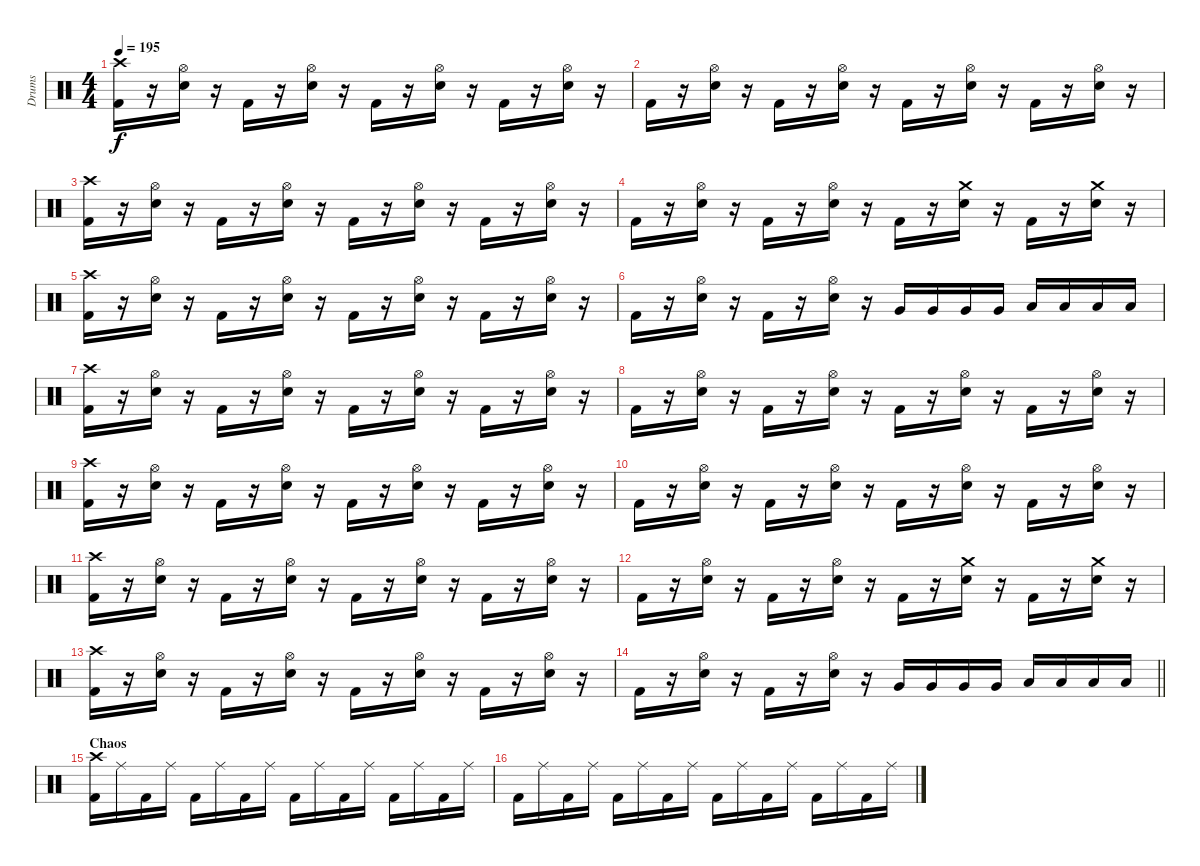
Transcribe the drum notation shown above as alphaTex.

\track ("Drums" "Drums") {instrument percussion}
\staff {score}
\articulation defaults
\ts (4 4)
\tempo 195
\clef neutral
\ks c
("Crash high (hit)" "Kick (hit) 2").16{dy f} r.16 ("Hi-Hat (open)" "Electric Snare (hit)").16 r.16 "Kick (hit) 2".16 r.16 ("Hi-Hat (open)" "Electric Snare (hit)").16 r.16 "Kick (hit) 2".16 r.16 ("Hi-Hat (open)" "Electric Snare (hit)").16 r.16 "Kick (hit) 2".16 r.16 ("Hi-Hat (open)" "Electric Snare (hit)").16 r.16 |
"Kick (hit) 2".16 r.16 ("Hi-Hat (open)" "Electric Snare (hit)").16 r.16 "Kick (hit) 2".16 r.16 ("Hi-Hat (open)" "Electric Snare (hit)").16 r.16 "Kick (hit) 2".16 r.16 ("Hi-Hat (open)" "Electric Snare (hit)").16 r.16 "Kick (hit) 2".16 r.16 ("Hi-Hat (open)" "Electric Snare (hit)").16 r.16 |
("Crash high (hit)" "Kick (hit) 2").16 r.16 ("Hi-Hat (open)" "Electric Snare (hit)").16 r.16 "Kick (hit) 2".16 r.16 ("Hi-Hat (open)" "Electric Snare (hit)").16 r.16 "Kick (hit) 2".16 r.16 ("Hi-Hat (open)" "Electric Snare (hit)").16 r.16 "Kick (hit) 2".16 r.16 ("Hi-Hat (open)" "Electric Snare (hit)").16 r.16 |
"Kick (hit) 2".16 r.16 ("Hi-Hat (open)" "Electric Snare (hit)").16 r.16 "Kick (hit) 2".16 r.16 ("Hi-Hat (open)" "Electric Snare (hit)").16 r.16 "Kick (hit) 2".16 r.16 ("Crash medium (hit)" "Electric Snare (hit)").16 r.16 "Kick (hit) 2".16 r.16 ("Crash medium (hit)" "Electric Snare (hit)").16 r.16 |
("Crash high (hit)" "Kick (hit) 2").16 r.16 ("Hi-Hat (open)" "Electric Snare (hit)").16 r.16 "Kick (hit) 2".16 r.16 ("Hi-Hat (open)" "Electric Snare (hit)").16 r.16 "Kick (hit) 2".16 r.16 ("Hi-Hat (open)" "Electric Snare (hit)").16 r.16 "Kick (hit) 2".16 r.16 ("Hi-Hat (open)" "Electric Snare (hit)").16 r.16 |
"Kick (hit) 2".16 r.16 ("Hi-Hat (open)" "Electric Snare (hit)").16 r.16 "Kick (hit) 2".16 r.16 ("Hi-Hat (open)" "Electric Snare (hit)").16 r.16 "Very Low Tom (hit)".16 "Very Low Tom (hit)".16 "Very Low Tom (hit)".16 "Very Low Tom (hit)".16 "Low Floor Tom (hit)".16 "Low Floor Tom (hit)".16 "Low Floor Tom (hit)".16 "Low Floor Tom (hit)".16 |
("Crash high (hit)" "Kick (hit) 2").16 r.16 ("Hi-Hat (open)" "Electric Snare (hit)").16 r.16 "Kick (hit) 2".16 r.16 ("Hi-Hat (open)" "Electric Snare (hit)").16 r.16 "Kick (hit) 2".16 r.16 ("Hi-Hat (open)" "Electric Snare (hit)").16 r.16 "Kick (hit) 2".16 r.16 ("Hi-Hat (open)" "Electric Snare (hit)").16 r.16 |
"Kick (hit) 2".16 r.16 ("Hi-Hat (open)" "Electric Snare (hit)").16 r.16 "Kick (hit) 2".16 r.16 ("Hi-Hat (open)" "Electric Snare (hit)").16 r.16 "Kick (hit) 2".16 r.16 ("Hi-Hat (open)" "Electric Snare (hit)").16 r.16 "Kick (hit) 2".16 r.16 ("Hi-Hat (open)" "Electric Snare (hit)").16 r.16 |
("Crash high (hit)" "Kick (hit) 2").16 r.16 ("Hi-Hat (open)" "Electric Snare (hit)").16 r.16 "Kick (hit) 2".16 r.16 ("Hi-Hat (open)" "Electric Snare (hit)").16 r.16 "Kick (hit) 2".16 r.16 ("Hi-Hat (open)" "Electric Snare (hit)").16 r.16 "Kick (hit) 2".16 r.16 ("Hi-Hat (open)" "Electric Snare (hit)").16 r.16 |
"Kick (hit) 2".16 r.16 ("Hi-Hat (open)" "Electric Snare (hit)").16 r.16 "Kick (hit) 2".16 r.16 ("Hi-Hat (open)" "Electric Snare (hit)").16 r.16 "Kick (hit) 2".16 r.16 ("Hi-Hat (open)" "Electric Snare (hit)").16 r.16 "Kick (hit) 2".16 r.16 ("Hi-Hat (open)" "Electric Snare (hit)").16 r.16 |
("Crash high (hit)" "Kick (hit) 2").16 r.16 ("Hi-Hat (open)" "Electric Snare (hit)").16 r.16 "Kick (hit) 2".16 r.16 ("Hi-Hat (open)" "Electric Snare (hit)").16 r.16 "Kick (hit) 2".16 r.16 ("Hi-Hat (open)" "Electric Snare (hit)").16 r.16 "Kick (hit) 2".16 r.16 ("Hi-Hat (open)" "Electric Snare (hit)").16 r.16 |
"Kick (hit) 2".16 r.16 ("Hi-Hat (open)" "Electric Snare (hit)").16 r.16 "Kick (hit) 2".16 r.16 ("Hi-Hat (open)" "Electric Snare (hit)").16 r.16 "Kick (hit) 2".16 r.16 ("Crash medium (hit)" "Electric Snare (hit)").16 r.16 "Kick (hit) 2".16 r.16 ("Crash medium (hit)" "Electric Snare (hit)").16 r.16 |
("Crash high (hit)" "Kick (hit) 2").16 r.16 ("Hi-Hat (open)" "Electric Snare (hit)").16 r.16 "Kick (hit) 2".16 r.16 ("Hi-Hat (open)" "Electric Snare (hit)").16 r.16 "Kick (hit) 2".16 r.16 ("Hi-Hat (open)" "Electric Snare (hit)").16 r.16 "Kick (hit) 2".16 r.16 ("Hi-Hat (open)" "Electric Snare (hit)").16 r.16 |
\barLineRight lightlight "Kick (hit) 2".16
r.16 ("Hi-Hat (open)" "Electric Snare (hit)").16 r.16 "Kick (hit) 2".16 r.16 ("Hi-Hat (open)" "Electric Snare (hit)").16 r.16 "Very Low Tom (hit)".16 "Very Low Tom (hit)".16 "Very Low Tom (hit)".16 "Very Low Tom (hit)".16 "Low Floor Tom (hit)".16 "Low Floor Tom (hit)".16 "Low Floor Tom (hit)".16 "Low Floor Tom (hit)".16 |
\section ("" "Chaos")
("Crash high (hit)" "Kick (hit) 2").16 "Ride (middle)".16 "Kick (hit) 2".16 "Ride (middle)".16 "Kick (hit) 2".16 "Ride (middle)".16 "Kick (hit) 2".16 "Ride (middle)".16 "Kick (hit) 2".16 "Ride (middle)".16 "Kick (hit) 2".16 "Ride (middle)".16 "Kick (hit) 2".16 "Ride (middle)".16 "Kick (hit) 2".16 "Ride (middle)".16 |
"Kick (hit) 2".16 "Ride (middle)".16 "Kick (hit) 2".16 "Ride (middle)".16 "Kick (hit) 2".16 "Ride (middle)".16 "Kick (hit) 2".16 "Ride (middle)".16 "Kick (hit) 2".16 "Ride (middle)".16 "Kick (hit) 2".16 "Ride (middle)".16 "Kick (hit) 2".16 "Ride (middle)".16 "Kick (hit) 2".16 "Ride (middle)".16
